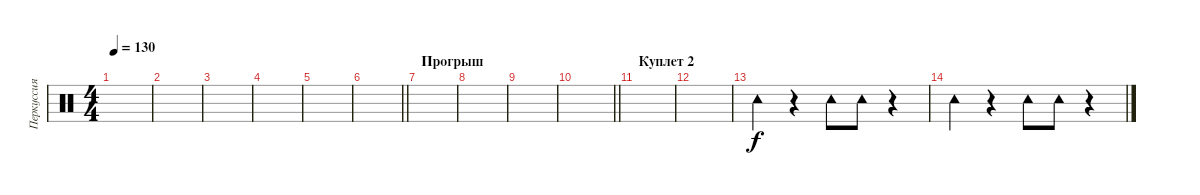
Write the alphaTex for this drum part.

\track ("Перкуссия" "Перкуссия") {instrument percussion}
\staff {score}
\articulation defaults
\ts (4 4)
\tempo 130
\clef neutral
\ks c
|
|
|
|
|
\barLineRight lightlight
|
\section ("" "Прогрыш")
|
|
|
\barLineRight lightlight
|
\section ("" "Куплет 2")
|
|
"Tambourine (hit)".4{volume 6} r.4 "Tambourine (hit)".8 "Tambourine (hit)".8 r.4 |
"Tambourine (hit)".4 r.4 "Tambourine (hit)".8 "Tambourine (hit)".8 r.4
